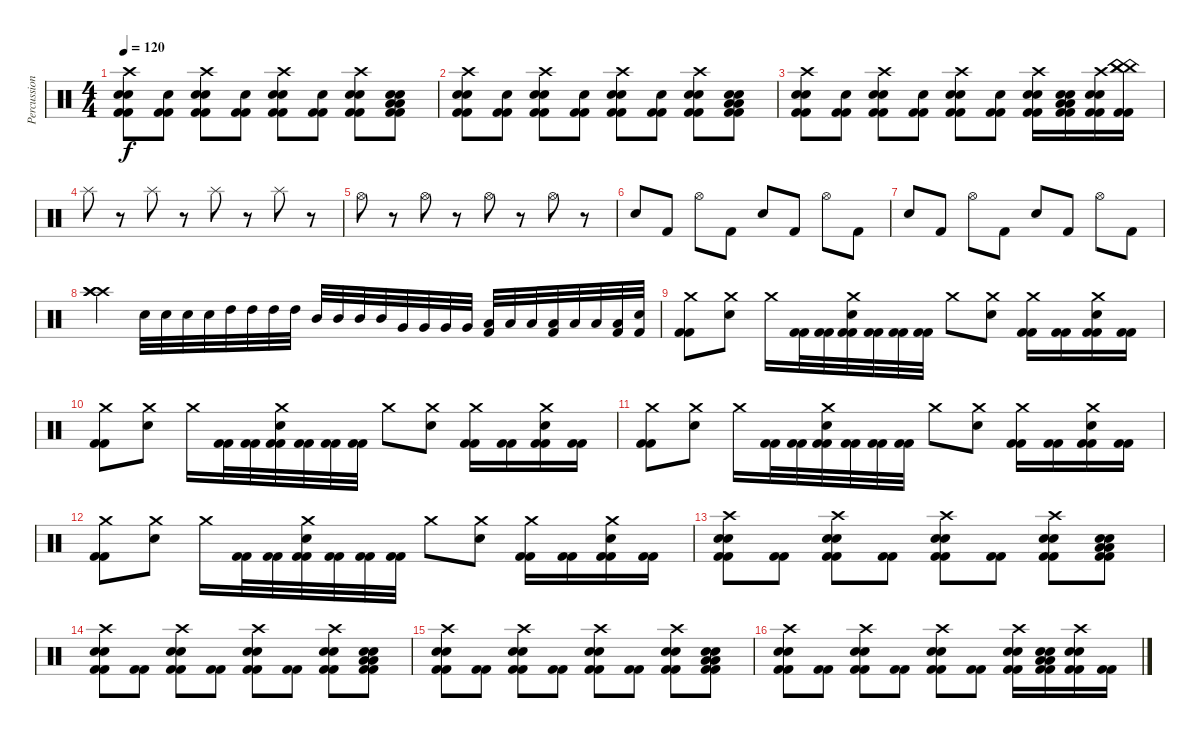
\track ("Percussions" "Percussion") {instrument percussion}
\staff {score}
\articulation defaults
\ts (4 4)
\tempo 120
\clef neutral
\ks c
("Crash high (hit)" "Electric Snare (hit)" "Electric Snare (hit)" "Kick (hit) 2" "Kick (hit) 2").8{dy f} ("Electric Snare (hit)" "Kick (hit) 2" "Kick (hit) 2").8 ("Crash high (hit)" "Electric Snare (hit)" "Electric Snare (hit)" "Kick (hit) 2" "Kick (hit) 2").8 ("Electric Snare (hit)" "Kick (hit) 2" "Kick (hit) 2").8 ("Crash high (hit)" "Electric Snare (hit)" "Electric Snare (hit)" "Kick (hit) 2" "Kick (hit) 2").8 ("Electric Snare (hit)" "Kick (hit) 2" "Kick (hit) 2").8 ("Crash high (hit)" "Electric Snare (hit)" "Electric Snare (hit)" "Kick (hit) 2" "Kick (hit) 2").8 ("Low Floor Tom (hit)" "Low Floor Tom (hit)" "Electric Snare (hit)" "Electric Snare (hit)" "Kick (hit) 2" "Kick (hit) 2").8 |
("Crash high (hit)" "Electric Snare (hit)" "Electric Snare (hit)" "Kick (hit) 2" "Kick (hit) 2").8 ("Electric Snare (hit)" "Kick (hit) 2" "Kick (hit) 2").8 ("Crash high (hit)" "Electric Snare (hit)" "Electric Snare (hit)" "Kick (hit) 2" "Kick (hit) 2").8 ("Electric Snare (hit)" "Kick (hit) 2" "Kick (hit) 2").8 ("Crash high (hit)" "Electric Snare (hit)" "Electric Snare (hit)" "Kick (hit) 2" "Kick (hit) 2").8 ("Electric Snare (hit)" "Kick (hit) 2" "Kick (hit) 2").8 ("Crash high (hit)" "Electric Snare (hit)" "Electric Snare (hit)" "Kick (hit) 2" "Kick (hit) 2").8 ("Low Floor Tom (hit)" "Low Floor Tom (hit)" "Electric Snare (hit)" "Electric Snare (hit)" "Kick (hit) 2" "Kick (hit) 2").8 |
("Crash high (hit)" "Electric Snare (hit)" "Electric Snare (hit)" "Kick (hit) 2" "Kick (hit) 2").8 ("Electric Snare (hit)" "Kick (hit) 2" "Kick (hit) 2").8 ("Crash high (hit)" "Electric Snare (hit)" "Electric Snare (hit)" "Kick (hit) 2" "Kick (hit) 2").8 ("Electric Snare (hit)" "Kick (hit) 2" "Kick (hit) 2").8 ("Crash high (hit)" "Electric Snare (hit)" "Electric Snare (hit)" "Kick (hit) 2" "Kick (hit) 2").8 ("Electric Snare (hit)" "Kick (hit) 2" "Kick (hit) 2").8 ("Crash high (hit)" "Electric Snare (hit)" "Electric Snare (hit)" "Kick (hit) 2" "Kick (hit) 2").16 ("Low Floor Tom (hit)" "Low Floor Tom (hit)" "Electric Snare (hit)" "Electric Snare (hit)" "Kick (hit) 2" "Kick (hit) 2").16 ("Crash high (hit)" "Electric Snare (hit)" "Electric Snare (hit)" "Kick (hit) 2" "Kick (hit) 2").16 ("China (hit)" "China (hit)" "China (hit)" "Kick (hit) 2" "Kick (hit) 2").16 |
"Splash (hit)".8 r.8 "Splash (hit)".8 r.8 "Splash (hit)".8 r.8 "Splash (hit)".8 r.8 |
"Hi-Hat (open)".8 r.8 "Hi-Hat (open)".8 r.8 "Hi-Hat (open)".8 r.8 "Hi-Hat (open)".8 r.8 |
"Electric Snare (hit)".8 "Kick (hit) 2".8 "Hi-Hat (open)".8 "Kick (hit) 2".8 "Electric Snare (hit)".8 "Kick (hit) 2".8 "Hi-Hat (open)".8 "Kick (hit) 2".8 |
"Electric Snare (hit)".8 "Kick (hit) 2".8 "Hi-Hat (open)".8 "Kick (hit) 2".8 "Electric Snare (hit)".8 "Kick (hit) 2".8 "Hi-Hat (open)".8 "Kick (hit) 2".8 |
("Crash high (hit)" "Crash high (hit)" "Crash high (hit)").4 "Electric Snare (hit)".32 "Electric Snare (hit)".32 "Electric Snare (hit)".32 "Electric Snare (hit)".32 "High Tom (hit)".32 "High Tom (hit)".32 "High Tom (hit)".32 "High Tom (hit)".32 "Mid Tom (hit)".32 "Mid Tom (hit)".32 "Mid Tom (hit)".32 "Mid Tom (hit)".32 "Very Low Tom (hit)".32 "Very Low Tom (hit)".32 "Very Low Tom (hit)".32 "Very Low Tom (hit)".32 ("Low Floor Tom (hit)" "Kick (hit) 2").32 "Low Floor Tom (hit)".32 "Low Floor Tom (hit)".32 ("Low Floor Tom (hit)" "Kick (hit) 2").32 "Low Floor Tom (hit)".32 "Low Floor Tom (hit)".32 ("Low Floor Tom (hit)" "Kick (hit) 2").32 ("Electric Snare (hit)" "Kick (hit) 2").32 |
("Crash medium (hit)" "Kick (hit) 2" "Kick (hit) 2").8 ("Crash medium (hit)" "Electric Snare (hit)").8 "Crash medium (hit)".16 ("Kick (hit) 2" "Kick (hit) 2").32 ("Kick (hit) 2" "Kick (hit) 2").32 ("Crash medium (hit)" "Electric Snare (hit)" "Kick (hit) 2" "Kick (hit) 2").32 ("Kick (hit) 2" "Kick (hit) 2").32 ("Kick (hit) 2" "Kick (hit) 2").32 ("Kick (hit) 2" "Kick (hit) 2").32 "Crash medium (hit)".8 ("Crash medium (hit)" "Electric Snare (hit)").8 ("Crash medium (hit)" "Kick (hit) 2" "Kick (hit) 2").16 ("Kick (hit) 2" "Kick (hit) 2").16 ("Crash medium (hit)" "Electric Snare (hit)" "Kick (hit) 2" "Kick (hit) 2").16 ("Kick (hit) 2" "Kick (hit) 2").16 |
("Crash medium (hit)" "Kick (hit) 2" "Kick (hit) 2").8 ("Crash medium (hit)" "Electric Snare (hit)").8 "Crash medium (hit)".16 ("Kick (hit) 2" "Kick (hit) 2").32 ("Kick (hit) 2" "Kick (hit) 2").32 ("Crash medium (hit)" "Electric Snare (hit)" "Kick (hit) 2" "Kick (hit) 2").32 ("Kick (hit) 2" "Kick (hit) 2").32 ("Kick (hit) 2" "Kick (hit) 2").32 ("Kick (hit) 2" "Kick (hit) 2").32 "Crash medium (hit)".8 ("Crash medium (hit)" "Electric Snare (hit)").8 ("Crash medium (hit)" "Kick (hit) 2" "Kick (hit) 2").16 ("Kick (hit) 2" "Kick (hit) 2").16 ("Crash medium (hit)" "Electric Snare (hit)" "Kick (hit) 2" "Kick (hit) 2").16 ("Kick (hit) 2" "Kick (hit) 2").16 |
("Crash medium (hit)" "Kick (hit) 2" "Kick (hit) 2").8 ("Crash medium (hit)" "Electric Snare (hit)").8 "Crash medium (hit)".16 ("Kick (hit) 2" "Kick (hit) 2").32 ("Kick (hit) 2" "Kick (hit) 2").32 ("Crash medium (hit)" "Electric Snare (hit)" "Kick (hit) 2" "Kick (hit) 2").32 ("Kick (hit) 2" "Kick (hit) 2").32 ("Kick (hit) 2" "Kick (hit) 2").32 ("Kick (hit) 2" "Kick (hit) 2").32 "Crash medium (hit)".8 ("Crash medium (hit)" "Electric Snare (hit)").8 ("Crash medium (hit)" "Kick (hit) 2" "Kick (hit) 2").16 ("Kick (hit) 2" "Kick (hit) 2").16 ("Crash medium (hit)" "Electric Snare (hit)" "Kick (hit) 2" "Kick (hit) 2").16 ("Kick (hit) 2" "Kick (hit) 2").16 |
("Crash medium (hit)" "Kick (hit) 2" "Kick (hit) 2").8 ("Crash medium (hit)" "Electric Snare (hit)").8 "Crash medium (hit)".16 ("Kick (hit) 2" "Kick (hit) 2").32 ("Kick (hit) 2" "Kick (hit) 2").32 ("Crash medium (hit)" "Electric Snare (hit)" "Kick (hit) 2" "Kick (hit) 2").32 ("Kick (hit) 2" "Kick (hit) 2").32 ("Kick (hit) 2" "Kick (hit) 2").32 ("Kick (hit) 2" "Kick (hit) 2").32 "Crash medium (hit)".8 ("Crash medium (hit)" "Electric Snare (hit)").8 ("Crash medium (hit)" "Kick (hit) 2" "Kick (hit) 2").16 ("Kick (hit) 2" "Kick (hit) 2").16 ("Crash medium (hit)" "Electric Snare (hit)" "Kick (hit) 2" "Kick (hit) 2").16 ("Kick (hit) 2" "Kick (hit) 2").16 |
("Crash high (hit)" "Electric Snare (hit)" "Electric Snare (hit)" "Kick (hit) 2" "Kick (hit) 2").8 ("Kick (hit) 2" "Kick (hit) 2").8 ("Crash high (hit)" "Electric Snare (hit)" "Electric Snare (hit)" "Kick (hit) 2" "Kick (hit) 2").8 ("Kick (hit) 2" "Kick (hit) 2").8 ("Crash high (hit)" "Electric Snare (hit)" "Electric Snare (hit)" "Kick (hit) 2" "Kick (hit) 2").8 ("Kick (hit) 2" "Kick (hit) 2").8 ("Crash high (hit)" "Electric Snare (hit)" "Electric Snare (hit)" "Kick (hit) 2" "Kick (hit) 2").8 ("Low Floor Tom (hit)" "Low Floor Tom (hit)" "Electric Snare (hit)" "Electric Snare (hit)" "Kick (hit) 2" "Kick (hit) 2").8 |
("Crash high (hit)" "Electric Snare (hit)" "Electric Snare (hit)" "Kick (hit) 2" "Kick (hit) 2").8 ("Kick (hit) 2" "Kick (hit) 2").8 ("Crash high (hit)" "Electric Snare (hit)" "Electric Snare (hit)" "Kick (hit) 2" "Kick (hit) 2").8 ("Kick (hit) 2" "Kick (hit) 2").8 ("Crash high (hit)" "Electric Snare (hit)" "Electric Snare (hit)" "Kick (hit) 2" "Kick (hit) 2").8 ("Kick (hit) 2" "Kick (hit) 2").8 ("Crash high (hit)" "Electric Snare (hit)" "Electric Snare (hit)" "Kick (hit) 2" "Kick (hit) 2").8 ("Low Floor Tom (hit)" "Low Floor Tom (hit)" "Electric Snare (hit)" "Electric Snare (hit)" "Kick (hit) 2" "Kick (hit) 2").8 |
("Crash high (hit)" "Electric Snare (hit)" "Electric Snare (hit)" "Kick (hit) 2" "Kick (hit) 2").8 ("Kick (hit) 2" "Kick (hit) 2").8 ("Crash high (hit)" "Electric Snare (hit)" "Electric Snare (hit)" "Kick (hit) 2" "Kick (hit) 2").8 ("Kick (hit) 2" "Kick (hit) 2").8 ("Crash high (hit)" "Electric Snare (hit)" "Electric Snare (hit)" "Kick (hit) 2" "Kick (hit) 2").8 ("Kick (hit) 2" "Kick (hit) 2").8 ("Crash high (hit)" "Electric Snare (hit)" "Electric Snare (hit)" "Kick (hit) 2" "Kick (hit) 2").8 ("Low Floor Tom (hit)" "Low Floor Tom (hit)" "Electric Snare (hit)" "Electric Snare (hit)" "Kick (hit) 2" "Kick (hit) 2").8 |
("Crash high (hit)" "Electric Snare (hit)" "Electric Snare (hit)" "Kick (hit) 2" "Kick (hit) 2").8 ("Kick (hit) 2" "Kick (hit) 2").8 ("Crash high (hit)" "Electric Snare (hit)" "Electric Snare (hit)" "Kick (hit) 2" "Kick (hit) 2").8 ("Kick (hit) 2" "Kick (hit) 2").8 ("Crash high (hit)" "Electric Snare (hit)" "Electric Snare (hit)" "Kick (hit) 2" "Kick (hit) 2").8 ("Kick (hit) 2" "Kick (hit) 2").8 ("Crash high (hit)" "Electric Snare (hit)" "Electric Snare (hit)" "Kick (hit) 2" "Kick (hit) 2").16 ("Low Floor Tom (hit)" "Low Floor Tom (hit)" "Electric Snare (hit)" "Electric Snare (hit)" "Kick (hit) 2" "Kick (hit) 2").16 ("Crash high (hit)" "Electric Snare (hit)" "Electric Snare (hit)" "Kick (hit) 2" "Kick (hit) 2").16 ("Kick (hit) 2" "Kick (hit) 2").16
